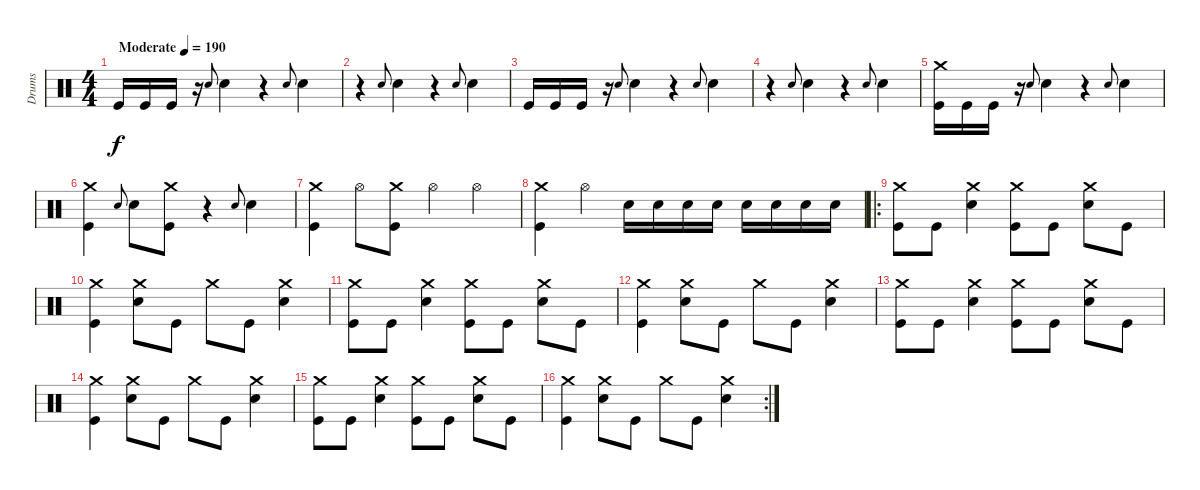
\track ("Drums" "Drums") {instrument percussion}
\staff {score}
\articulation defaults
\ts (4 4)
\tempo (190 "Moderate")
\clef neutral
\ks c "Kick (hit)".16{dy f} "Kick (hit)".16 "Kick (hit)".16
r.16 "Snare (hit) 2".8{gr onbeat} "Snare (hit) 2".4 r.4 "Snare (hit) 2".8{gr onbeat} "Snare (hit) 2".4 |
r.4 "Snare (hit) 2".8{gr onbeat} "Snare (hit) 2".4 r.4 "Snare (hit) 2".8{gr onbeat} "Snare (hit) 2".4 |
"Kick (hit)".16 "Kick (hit)".16 "Kick (hit)".16 r.16 "Snare (hit) 2".8{gr onbeat} "Snare (hit) 2".4 r.4 "Snare (hit) 2".8{gr onbeat} "Snare (hit) 2".4 |
r.4 "Snare (hit) 2".8{gr onbeat} "Snare (hit) 2".4 r.4 "Snare (hit) 2".8{gr onbeat} "Snare (hit) 2".4 |
("Crash medium (hit)" "Kick (hit)").16 "Kick (hit)".16 "Kick (hit)".16 r.16 "Snare (hit) 2".8{gr onbeat} "Snare (hit) 2".4 r.4 "Snare (hit) 2".8{gr onbeat} "Snare (hit) 2".4 |
("Crash medium (hit)" "Kick (hit)").4 "Snare (hit) 2".8{gr onbeat} "Snare (hit) 2".8 ("Crash medium (hit)" "Kick (hit)").8 r.4 "Snare (hit) 2".8{gr onbeat} "Snare (hit) 2".4 |
("Crash medium (hit)" "Kick (hit)").4 "Hi-Hat (open)".8 ("Crash medium (hit)" "Kick (hit)").8 "Hi-Hat (open)".4 "Hi-Hat (open)".4 |
("Crash medium (hit)" "Kick (hit)").4 "Hi-Hat (open)".4 "Snare (hit) 2".16 "Snare (hit) 2".16 "Snare (hit) 2".16 "Snare (hit) 2".16 "Snare (hit) 2".16 "Snare (hit) 2".16 "Snare (hit) 2".16 "Snare (hit) 2".16 |
\ro
("Crash medium (hit)" "Kick (hit)").8 "Kick (hit)".8 ("Crash medium (hit)" "Snare (hit) 2").4 ("Crash medium (hit)" "Kick (hit)").8 "Kick (hit)".8 ("Crash medium (hit)" "Snare (hit) 2").8 "Kick (hit)".8 |
("Crash medium (hit)" "Kick (hit)").4 ("Crash medium (hit)" "Snare (hit) 2").8 "Kick (hit)".8 "Crash medium (hit)".8 "Kick (hit)".8 ("Crash medium (hit)" "Snare (hit) 2").4 |
("Crash medium (hit)" "Kick (hit)").8 "Kick (hit)".8 ("Crash medium (hit)" "Snare (hit) 2").4 ("Crash medium (hit)" "Kick (hit)").8 "Kick (hit)".8 ("Crash medium (hit)" "Snare (hit) 2").8 "Kick (hit)".8 |
("Crash medium (hit)" "Kick (hit)").4 ("Crash medium (hit)" "Snare (hit) 2").8 "Kick (hit)".8 "Crash medium (hit)".8 "Kick (hit)".8 ("Crash medium (hit)" "Snare (hit) 2").4 |
("Crash medium (hit)" "Kick (hit)").8 "Kick (hit)".8 ("Crash medium (hit)" "Snare (hit) 2").4 ("Crash medium (hit)" "Kick (hit)").8 "Kick (hit)".8 ("Crash medium (hit)" "Snare (hit) 2").8 "Kick (hit)".8 |
("Crash medium (hit)" "Kick (hit)").4 ("Crash medium (hit)" "Snare (hit) 2").8 "Kick (hit)".8 "Crash medium (hit)".8 "Kick (hit)".8 ("Crash medium (hit)" "Snare (hit) 2").4 |
("Crash medium (hit)" "Kick (hit)").8 "Kick (hit)".8 ("Crash medium (hit)" "Snare (hit) 2").4 ("Crash medium (hit)" "Kick (hit)").8 "Kick (hit)".8 ("Crash medium (hit)" "Snare (hit) 2").8 "Kick (hit)".8 |
\rc 2
("Crash medium (hit)" "Kick (hit)").4 ("Crash medium (hit)" "Snare (hit) 2").8 "Kick (hit)".8 "Crash medium (hit)".8 "Kick (hit)".8 ("Crash medium (hit)" "Snare (hit) 2").4
